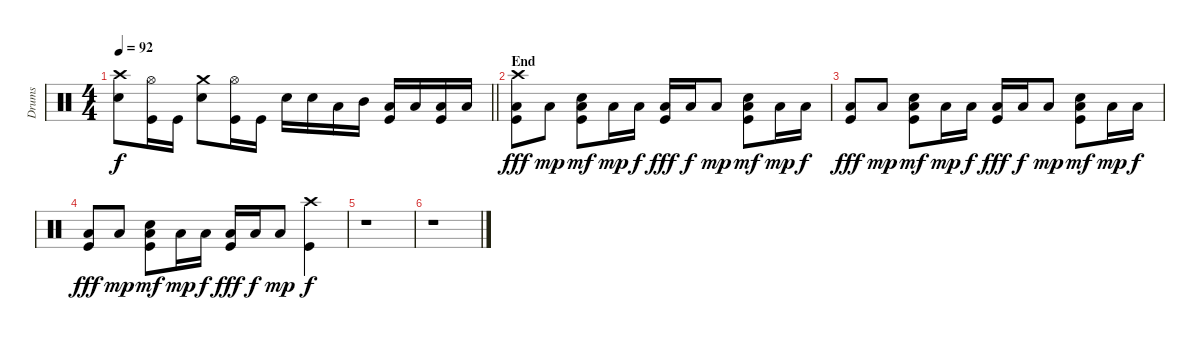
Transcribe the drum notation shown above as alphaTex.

\track ("Drums" "Drums") {instrument percussion}
\staff {score}
\articulation defaults
\ts (4 4)
\tempo 92
\clef neutral
\barLineRight lightlight
\ks c
("Crash high (hit)" "Electric Snare (hit)").8{dy f} ("Hi-Hat (open)" "Kick (hit)").16 "Kick (hit)".16 ("Crash medium (hit)" "Electric Snare (hit)").8 ("Hi-Hat (open)" "Kick (hit)").16 "Kick (hit)".16 "Electric Snare (hit)".16 "Electric Snare (hit)".16 "Low Tom (hit)".16 "Mid Tom (hit)".16 ("Low Tom (hit)" "Kick (hit)").16 "Low Tom (hit)".16 ("Low Floor Tom (hit)" "Kick (hit)").16 "Low Floor Tom (hit)".16 |
\section ("" "End")
("Crash high (hit)" "Low Floor Tom (hit)" "Kick (hit)").8{dy fff} "Low Floor Tom (hit)".8{dy mp} ("Electric Snare (hit)" "Low Floor Tom (hit)" "Kick (hit)").8{dy mf} "Low Floor Tom (hit)".16{dy mp} "Low Tom (hit)".16{dy f} ("Low Floor Tom (hit)" "Kick (hit)").16{dy fff} "Low Tom (hit)".16{dy f} "Low Floor Tom (hit)".8{dy mp} ("Electric Snare (hit)" "Low Floor Tom (hit)" "Kick (hit)").8{dy mf} "Low Floor Tom (hit)".16{dy mp} "Low Tom (hit)".16{dy f} |
("Low Floor Tom (hit)" "Kick (hit)").8{dy fff} "Low Floor Tom (hit)".8{dy mp} ("Electric Snare (hit)" "Low Floor Tom (hit)" "Kick (hit)").8{dy mf} "Low Floor Tom (hit)".16{dy mp} "Low Tom (hit)".16{dy f} ("Low Floor Tom (hit)" "Kick (hit)").16{dy fff} "Low Tom (hit)".16{dy f} "Low Floor Tom (hit)".8{dy mp} ("Electric Snare (hit)" "Low Floor Tom (hit)" "Kick (hit)").8{dy mf} "Low Floor Tom (hit)".16{dy mp} "Low Tom (hit)".16{dy f} |
("Low Floor Tom (hit)" "Kick (hit)").8{dy fff} "Low Floor Tom (hit)".8{dy mp} ("Electric Snare (hit)" "Low Floor Tom (hit)" "Kick (hit)").8{dy mf} "Low Floor Tom (hit)".16{dy mp} "Low Tom (hit)".16{dy f} ("Low Floor Tom (hit)" "Kick (hit)").16{dy fff} "Low Tom (hit)".16{dy f} "Low Floor Tom (hit)".8{dy mp} ("Crash high (hit)" "Kick (hit)").4{dy f} |
r.1 |
r.1
